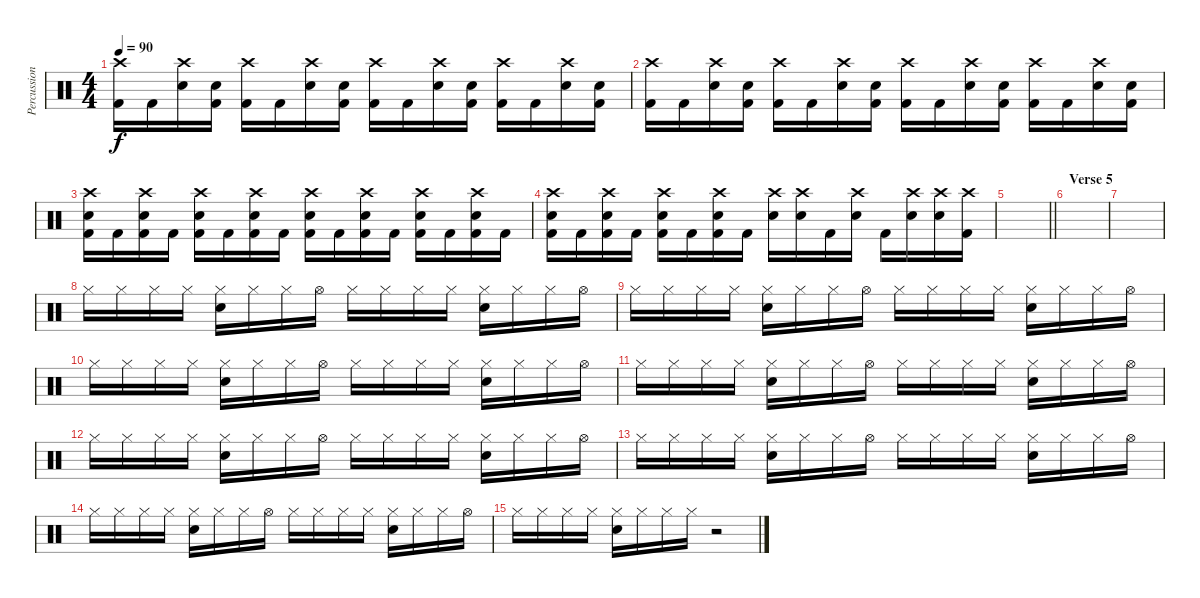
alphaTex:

\track ("Percussion" "Percussion") {instrument percussion}
\staff {score}
\articulation defaults
\ts (4 4)
\tempo 90
\clef neutral
\ks c
("Crash high (hit)" "Kick (hit) 2").16{dy f} "Kick (hit) 2".16 ("Crash high (hit)" "Snare (hit) 2").16 ("Snare (hit) 2" "Kick (hit) 2").16 ("Crash high (hit)" "Kick (hit) 2").16 "Kick (hit) 2".16 ("Crash high (hit)" "Snare (hit) 2").16 ("Snare (hit) 2" "Kick (hit) 2").16 ("Crash high (hit)" "Kick (hit) 2").16 "Kick (hit) 2".16 ("Crash high (hit)" "Snare (hit) 2").16 ("Snare (hit) 2" "Kick (hit) 2").16 ("Crash high (hit)" "Kick (hit) 2").16 "Kick (hit) 2".16 ("Crash high (hit)" "Snare (hit) 2").16 ("Snare (hit) 2" "Kick (hit) 2").16 |
("Crash high (hit)" "Kick (hit) 2").16 "Kick (hit) 2".16 ("Crash high (hit)" "Snare (hit) 2").16 ("Snare (hit) 2" "Kick (hit) 2").16 ("Crash high (hit)" "Kick (hit) 2").16 "Kick (hit) 2".16 ("Crash high (hit)" "Snare (hit) 2").16 ("Snare (hit) 2" "Kick (hit) 2").16 ("Crash high (hit)" "Kick (hit) 2").16 "Kick (hit) 2".16 ("Crash high (hit)" "Snare (hit) 2").16 ("Snare (hit) 2" "Kick (hit) 2").16 ("Crash high (hit)" "Kick (hit) 2").16 "Kick (hit) 2".16 ("Crash high (hit)" "Snare (hit) 2").16 ("Snare (hit) 2" "Kick (hit) 2").16 |
("Crash high (hit)" "Snare (hit) 2" "Kick (hit) 2").16 "Kick (hit) 2".16 ("Crash high (hit)" "Snare (hit) 2" "Kick (hit) 2").16 "Kick (hit) 2".16 ("Crash high (hit)" "Snare (hit) 2" "Kick (hit) 2").16 "Kick (hit) 2".16 ("Crash high (hit)" "Snare (hit) 2" "Kick (hit) 2").16 "Kick (hit) 2".16 ("Crash high (hit)" "Snare (hit) 2" "Kick (hit) 2").16 "Kick (hit) 2".16 ("Crash high (hit)" "Snare (hit) 2" "Kick (hit) 2").16 "Kick (hit) 2".16 ("Crash high (hit)" "Snare (hit) 2" "Kick (hit) 2").16 "Kick (hit) 2".16 ("Crash high (hit)" "Snare (hit) 2" "Kick (hit) 2").16 "Kick (hit) 2".16 |
("Crash high (hit)" "Snare (hit) 2" "Kick (hit) 2").16 "Kick (hit) 2".16 ("Crash high (hit)" "Snare (hit) 2" "Kick (hit) 2").16 "Kick (hit) 2".16 ("Crash high (hit)" "Snare (hit) 2" "Kick (hit) 2").16 "Kick (hit) 2".16 ("Crash high (hit)" "Snare (hit) 2" "Kick (hit) 2").16 "Kick (hit) 2".16 ("Crash high (hit)" "Snare (hit) 2").16 ("Crash high (hit)" "Snare (hit) 2").16 "Kick (hit) 2".16 ("Crash high (hit)" "Snare (hit) 2").16 "Kick (hit) 2".16 ("Crash high (hit)" "Snare (hit) 2").16 ("Crash high (hit)" "Snare (hit) 2").16 ("Crash high (hit)" "Kick (hit) 2").16 |
\barLineRight lightlight
|
\section ("" "Verse 5")
|
|
"Hi-Hat (closed)".16 "Hi-Hat (closed)".16 "Hi-Hat (closed)".16 "Hi-Hat (closed)".16 ("Hi-Hat (closed)" "Snare (hit) 2").16 "Hi-Hat (closed)".16 "Hi-Hat (closed)".16 "Hi-Hat (open)".16 "Hi-Hat (closed)".16 "Hi-Hat (closed)".16 "Hi-Hat (closed)".16 "Hi-Hat (closed)".16 ("Hi-Hat (closed)" "Snare (hit) 2").16 "Hi-Hat (closed)".16 "Hi-Hat (closed)".16 "Hi-Hat (open)".16 |
"Hi-Hat (closed)".16 "Hi-Hat (closed)".16 "Hi-Hat (closed)".16 "Hi-Hat (closed)".16 ("Hi-Hat (closed)" "Snare (hit) 2").16 "Hi-Hat (closed)".16 "Hi-Hat (closed)".16 "Hi-Hat (open)".16 "Hi-Hat (closed)".16 "Hi-Hat (closed)".16 "Hi-Hat (closed)".16 "Hi-Hat (closed)".16 ("Hi-Hat (closed)" "Snare (hit) 2").16 "Hi-Hat (closed)".16 "Hi-Hat (closed)".16 "Hi-Hat (open)".16 |
"Hi-Hat (closed)".16 "Hi-Hat (closed)".16 "Hi-Hat (closed)".16 "Hi-Hat (closed)".16 ("Hi-Hat (closed)" "Snare (hit) 2").16 "Hi-Hat (closed)".16 "Hi-Hat (closed)".16 "Hi-Hat (open)".16 "Hi-Hat (closed)".16 "Hi-Hat (closed)".16 "Hi-Hat (closed)".16 "Hi-Hat (closed)".16 ("Hi-Hat (closed)" "Snare (hit) 2").16 "Hi-Hat (closed)".16 "Hi-Hat (closed)".16 "Hi-Hat (open)".16 |
"Hi-Hat (closed)".16 "Hi-Hat (closed)".16 "Hi-Hat (closed)".16 "Hi-Hat (closed)".16 ("Hi-Hat (closed)" "Snare (hit) 2").16 "Hi-Hat (closed)".16 "Hi-Hat (closed)".16 "Hi-Hat (open)".16 "Hi-Hat (closed)".16 "Hi-Hat (closed)".16 "Hi-Hat (closed)".16 "Hi-Hat (closed)".16 ("Hi-Hat (closed)" "Snare (hit) 2").16 "Hi-Hat (closed)".16 "Hi-Hat (closed)".16 "Hi-Hat (open)".16 |
"Hi-Hat (closed)".16 "Hi-Hat (closed)".16 "Hi-Hat (closed)".16 "Hi-Hat (closed)".16 ("Hi-Hat (closed)" "Snare (hit) 2").16 "Hi-Hat (closed)".16 "Hi-Hat (closed)".16 "Hi-Hat (open)".16 "Hi-Hat (closed)".16 "Hi-Hat (closed)".16 "Hi-Hat (closed)".16 "Hi-Hat (closed)".16 ("Hi-Hat (closed)" "Snare (hit) 2").16 "Hi-Hat (closed)".16 "Hi-Hat (closed)".16 "Hi-Hat (open)".16 |
"Hi-Hat (closed)".16 "Hi-Hat (closed)".16 "Hi-Hat (closed)".16 "Hi-Hat (closed)".16 ("Hi-Hat (closed)" "Snare (hit) 2").16 "Hi-Hat (closed)".16 "Hi-Hat (closed)".16 "Hi-Hat (open)".16 "Hi-Hat (closed)".16 "Hi-Hat (closed)".16 "Hi-Hat (closed)".16 "Hi-Hat (closed)".16 ("Hi-Hat (closed)" "Snare (hit) 2").16 "Hi-Hat (closed)".16 "Hi-Hat (closed)".16 "Hi-Hat (open)".16 |
"Hi-Hat (closed)".16 "Hi-Hat (closed)".16 "Hi-Hat (closed)".16 "Hi-Hat (closed)".16 ("Hi-Hat (closed)" "Snare (hit) 2").16 "Hi-Hat (closed)".16 "Hi-Hat (closed)".16 "Hi-Hat (open)".16 "Hi-Hat (closed)".16 "Hi-Hat (closed)".16 "Hi-Hat (closed)".16 "Hi-Hat (closed)".16 ("Hi-Hat (closed)" "Snare (hit) 2").16 "Hi-Hat (closed)".16 "Hi-Hat (closed)".16 "Hi-Hat (open)".16 |
"Hi-Hat (closed)".16 "Hi-Hat (closed)".16 "Hi-Hat (closed)".16 "Hi-Hat (closed)".16 ("Hi-Hat (closed)" "Snare (hit) 2").16 "Hi-Hat (closed)".16 "Hi-Hat (closed)".16 "Hi-Hat (closed)".16 r.2
